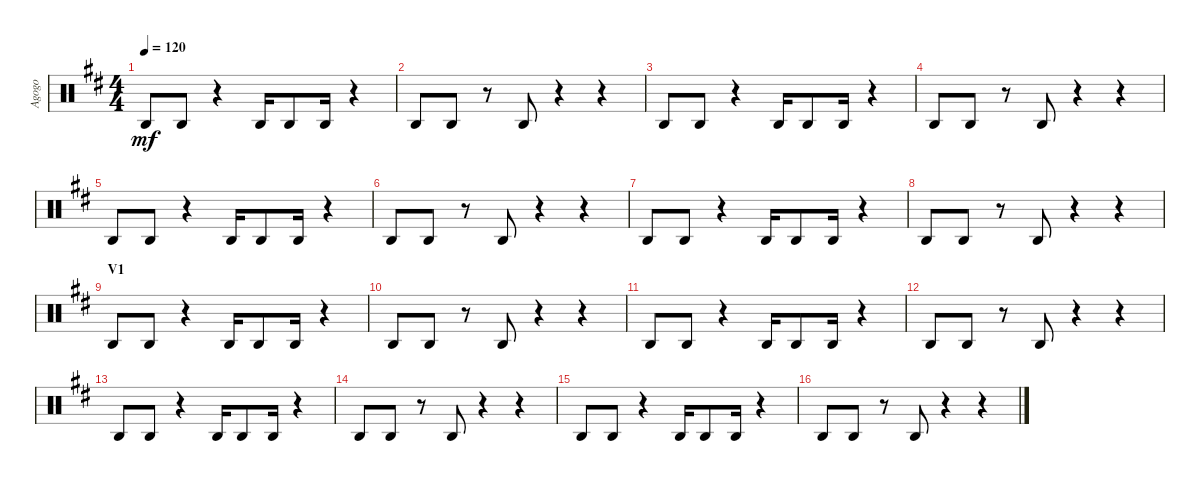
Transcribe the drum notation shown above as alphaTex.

\track ("Agogo" "Agogo") {instrument percussion}
\staff {score}
\articulation defaults
\ts (4 4)
\tempo 120
\clef neutral
\ks d "Agogo high (hit)".8{dy mf} "Agogo high (hit)".8
r.4 "Agogo high (hit)".16 "Agogo high (hit)".8 "Agogo high (hit)".16 r.4 |
"Agogo high (hit)".8 "Agogo high (hit)".8 r.8 "Agogo high (hit)".8 r.4 r.4 |
"Agogo high (hit)".8 "Agogo high (hit)".8 r.4 "Agogo high (hit)".16 "Agogo high (hit)".8 "Agogo high (hit)".16 r.4 |
"Agogo high (hit)".8 "Agogo high (hit)".8 r.8 "Agogo high (hit)".8 r.4 r.4 |
"Agogo high (hit)".8 "Agogo high (hit)".8 r.4 "Agogo high (hit)".16 "Agogo high (hit)".8 "Agogo high (hit)".16 r.4 |
"Agogo high (hit)".8 "Agogo high (hit)".8 r.8 "Agogo high (hit)".8 r.4 r.4 |
"Agogo high (hit)".8 "Agogo high (hit)".8 r.4 "Agogo high (hit)".16 "Agogo high (hit)".8 "Agogo high (hit)".16 r.4 |
"Agogo high (hit)".8 "Agogo high (hit)".8 r.8 "Agogo high (hit)".8 r.4 r.4 |
\section ("" "V1")
"Agogo high (hit)".8 "Agogo high (hit)".8 r.4 "Agogo high (hit)".16 "Agogo high (hit)".8 "Agogo high (hit)".16 r.4 |
"Agogo high (hit)".8 "Agogo high (hit)".8 r.8 "Agogo high (hit)".8 r.4 r.4 |
"Agogo high (hit)".8 "Agogo high (hit)".8 r.4 "Agogo high (hit)".16 "Agogo high (hit)".8 "Agogo high (hit)".16 r.4 |
"Agogo high (hit)".8 "Agogo high (hit)".8 r.8 "Agogo high (hit)".8 r.4 r.4 |
"Agogo high (hit)".8 "Agogo high (hit)".8 r.4 "Agogo high (hit)".16 "Agogo high (hit)".8 "Agogo high (hit)".16 r.4 |
"Agogo high (hit)".8 "Agogo high (hit)".8 r.8 "Agogo high (hit)".8 r.4 r.4 |
"Agogo high (hit)".8 "Agogo high (hit)".8 r.4 "Agogo high (hit)".16 "Agogo high (hit)".8 "Agogo high (hit)".16 r.4 |
"Agogo high (hit)".8 "Agogo high (hit)".8 r.8 "Agogo high (hit)".8 r.4 r.4
